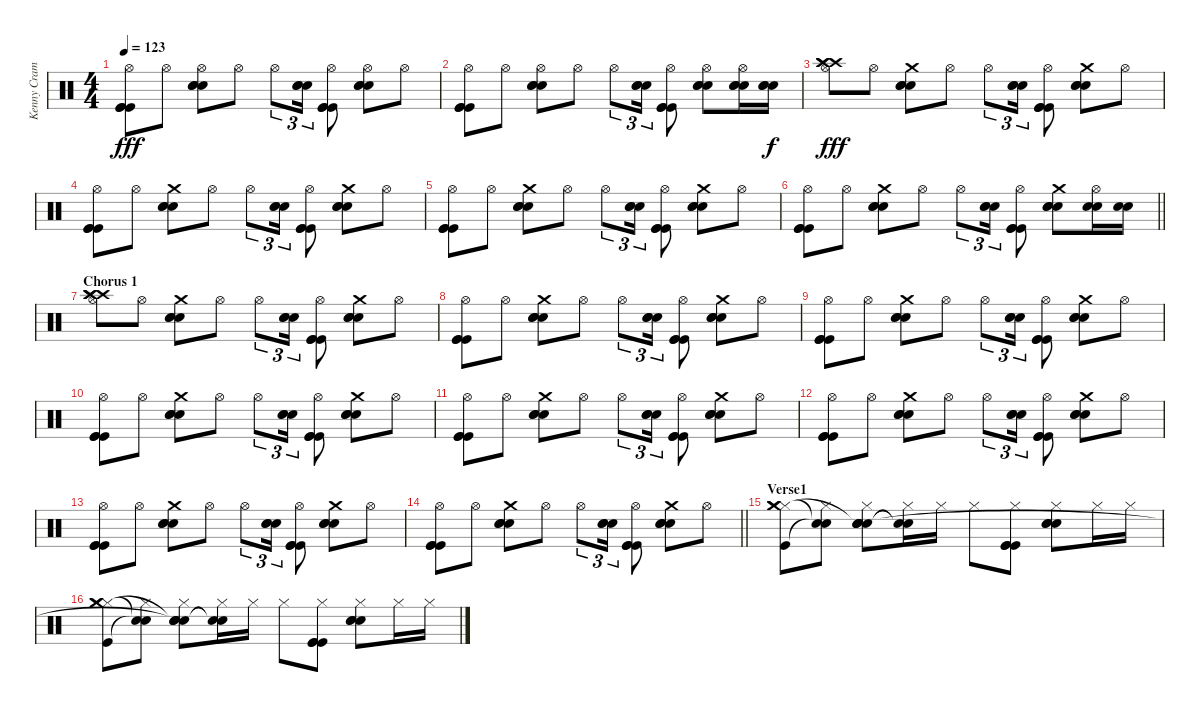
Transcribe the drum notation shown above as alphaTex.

\track ("Kenny Cramme - Drums" "Kenny Cram") {instrument percussion}
\staff {score}
\articulation defaults
\ts (4 4)
\tempo 123
\clef neutral
\ks c
("Hi-Hat (open)" "Kick (hit)" "Kick (hit)" "Kick (hit)").8{dy fff} "Hi-Hat (open)".8 ("Hi-Hat (open)" "Snare (hit) 2" "Snare (hit) 2" "Snare (hit) 2").8 "Hi-Hat (open)".8 "Hi-Hat (open)".8{tu (3 2)} ("Snare (hit) 2" "Snare (hit) 2" "Snare (hit) 2").16{tu (3 2)} ("Hi-Hat (open)" "Kick (hit)" "Kick (hit)" "Kick (hit)").8 ("Hi-Hat (open)" "Snare (hit) 2" "Snare (hit) 2" "Snare (hit) 2").8 "Hi-Hat (open)".8 |
("Hi-Hat (open)" "Kick (hit)" "Kick (hit)" "Kick (hit)").8 "Hi-Hat (open)".8 ("Hi-Hat (open)" "Snare (hit) 2" "Snare (hit) 2" "Snare (hit) 2").8 "Hi-Hat (open)".8 "Hi-Hat (open)".8{tu (3 2)} ("Snare (hit) 2" "Snare (hit) 2" "Snare (hit) 2").16{tu (3 2)} ("Hi-Hat (open)" "Kick (hit)" "Kick (hit)" "Kick (hit)").8 ("Hi-Hat (open)" "Snare (hit) 2" "Snare (hit) 2" "Snare (hit) 2").8 ("Hi-Hat (open)" "Snare (hit) 2" "Snare (hit) 2" "Snare (hit) 2").16 ("Snare (hit) 2" "Snare (hit) 2" "Snare (hit) 2").16{dy f} |
("Hi-Hat (open)" "Crash high (hit)" "Crash high (hit)" "Crash high (hit)").8{dy fff} "Hi-Hat (open)".8 ("Crash medium (hit)" "Snare (hit) 2" "Snare (hit) 2" "Snare (hit) 2").8 "Hi-Hat (open)".8 "Hi-Hat (open)".8{tu (3 2)} ("Snare (hit) 2" "Snare (hit) 2" "Snare (hit) 2").16{tu (3 2)} ("Hi-Hat (open)" "Kick (hit)" "Kick (hit)" "Kick (hit)").8 ("Crash medium (hit)" "Snare (hit) 2" "Snare (hit) 2" "Snare (hit) 2").8 "Hi-Hat (open)".8 |
("Hi-Hat (open)" "Kick (hit)" "Kick (hit)" "Kick (hit)").8 "Hi-Hat (open)".8 ("Crash medium (hit)" "Snare (hit) 2" "Snare (hit) 2" "Snare (hit) 2").8 "Hi-Hat (open)".8 "Hi-Hat (open)".8{tu (3 2)} ("Snare (hit) 2" "Snare (hit) 2" "Snare (hit) 2").16{tu (3 2)} ("Hi-Hat (open)" "Kick (hit)" "Kick (hit)" "Kick (hit)").8 ("Crash medium (hit)" "Snare (hit) 2" "Snare (hit) 2" "Snare (hit) 2").8 "Hi-Hat (open)".8 |
("Hi-Hat (open)" "Kick (hit)" "Kick (hit)" "Kick (hit)").8 "Hi-Hat (open)".8 ("Crash medium (hit)" "Snare (hit) 2" "Snare (hit) 2" "Snare (hit) 2").8 "Hi-Hat (open)".8 "Hi-Hat (open)".8{tu (3 2)} ("Snare (hit) 2" "Snare (hit) 2" "Snare (hit) 2").16{tu (3 2)} ("Hi-Hat (open)" "Kick (hit)" "Kick (hit)" "Kick (hit)").8 ("Crash medium (hit)" "Snare (hit) 2" "Snare (hit) 2" "Snare (hit) 2").8 "Hi-Hat (open)".8 |
\barLineRight lightlight
("Hi-Hat (open)" "Kick (hit)" "Kick (hit)" "Kick (hit)").8 "Hi-Hat (open)".8 ("Crash medium (hit)" "Snare (hit) 2" "Snare (hit) 2" "Snare (hit) 2").8 "Hi-Hat (open)".8 "Hi-Hat (open)".8{tu (3 2)} ("Snare (hit) 2" "Snare (hit) 2" "Snare (hit) 2").16{tu (3 2)} ("Hi-Hat (open)" "Kick (hit)" "Kick (hit)" "Kick (hit)").8 ("Crash medium (hit)" "Snare (hit) 2" "Snare (hit) 2" "Snare (hit) 2").8 ("Hi-Hat (open)" "Snare (hit) 2" "Snare (hit) 2").16 ("Snare (hit) 2" "Snare (hit) 2").16 |
\section ("" "Chorus 1")
("Hi-Hat (open)" "Crash high (hit)" "Crash high (hit)" "Crash high (hit)").8 "Hi-Hat (open)".8 ("Crash medium (hit)" "Snare (hit) 2" "Snare (hit) 2" "Snare (hit) 2").8 "Hi-Hat (open)".8 "Hi-Hat (open)".8{tu (3 2)} ("Snare (hit) 2" "Snare (hit) 2" "Snare (hit) 2").16{tu (3 2)} ("Hi-Hat (open)" "Kick (hit)" "Kick (hit)" "Kick (hit)").8 ("Crash medium (hit)" "Snare (hit) 2" "Snare (hit) 2" "Snare (hit) 2").8 "Hi-Hat (open)".8 |
("Hi-Hat (open)" "Kick (hit)" "Kick (hit)" "Kick (hit)").8 "Hi-Hat (open)".8 ("Crash medium (hit)" "Snare (hit) 2" "Snare (hit) 2" "Snare (hit) 2").8 "Hi-Hat (open)".8 "Hi-Hat (open)".8{tu (3 2)} ("Snare (hit) 2" "Snare (hit) 2" "Snare (hit) 2").16{tu (3 2)} ("Hi-Hat (open)" "Kick (hit)" "Kick (hit)" "Kick (hit)").8 ("Crash medium (hit)" "Snare (hit) 2" "Snare (hit) 2" "Snare (hit) 2").8 "Hi-Hat (open)".8 |
("Hi-Hat (open)" "Kick (hit)" "Kick (hit)" "Kick (hit)").8 "Hi-Hat (open)".8 ("Crash medium (hit)" "Snare (hit) 2" "Snare (hit) 2" "Snare (hit) 2").8 "Hi-Hat (open)".8 "Hi-Hat (open)".8{tu (3 2)} ("Snare (hit) 2" "Snare (hit) 2" "Snare (hit) 2").16{tu (3 2)} ("Hi-Hat (open)" "Kick (hit)" "Kick (hit)" "Kick (hit)").8 ("Crash medium (hit)" "Snare (hit) 2" "Snare (hit) 2" "Snare (hit) 2").8 "Hi-Hat (open)".8 |
("Hi-Hat (open)" "Kick (hit)" "Kick (hit)" "Kick (hit)").8 "Hi-Hat (open)".8 ("Crash medium (hit)" "Snare (hit) 2" "Snare (hit) 2" "Snare (hit) 2").8 "Hi-Hat (open)".8 "Hi-Hat (open)".8{tu (3 2)} ("Snare (hit) 2" "Snare (hit) 2" "Snare (hit) 2").16{tu (3 2)} ("Hi-Hat (open)" "Kick (hit)" "Kick (hit)" "Kick (hit)").8 ("Crash medium (hit)" "Snare (hit) 2" "Snare (hit) 2" "Snare (hit) 2").8 "Hi-Hat (open)".8 |
("Hi-Hat (open)" "Kick (hit)" "Kick (hit)" "Kick (hit)").8 "Hi-Hat (open)".8 ("Crash medium (hit)" "Snare (hit) 2" "Snare (hit) 2" "Snare (hit) 2").8 "Hi-Hat (open)".8 "Hi-Hat (open)".8{tu (3 2)} ("Snare (hit) 2" "Snare (hit) 2" "Snare (hit) 2").16{tu (3 2)} ("Hi-Hat (open)" "Kick (hit)" "Kick (hit)" "Kick (hit)").8 ("Crash medium (hit)" "Snare (hit) 2" "Snare (hit) 2" "Snare (hit) 2").8 "Hi-Hat (open)".8 |
("Hi-Hat (open)" "Kick (hit)" "Kick (hit)" "Kick (hit)").8 "Hi-Hat (open)".8 ("Crash medium (hit)" "Snare (hit) 2" "Snare (hit) 2" "Snare (hit) 2").8 "Hi-Hat (open)".8 "Hi-Hat (open)".8{tu (3 2)} ("Snare (hit) 2" "Snare (hit) 2" "Snare (hit) 2").16{tu (3 2)} ("Hi-Hat (open)" "Kick (hit)" "Kick (hit)" "Kick (hit)").8 ("Crash medium (hit)" "Snare (hit) 2" "Snare (hit) 2" "Snare (hit) 2").8 "Hi-Hat (open)".8 |
("Hi-Hat (open)" "Kick (hit)" "Kick (hit)" "Kick (hit)").8 "Hi-Hat (open)".8 ("Crash medium (hit)" "Snare (hit) 2" "Snare (hit) 2" "Snare (hit) 2").8 "Hi-Hat (open)".8 "Hi-Hat (open)".8{tu (3 2)} ("Snare (hit) 2" "Snare (hit) 2" "Snare (hit) 2").16{tu (3 2)} ("Hi-Hat (open)" "Kick (hit)" "Kick (hit)" "Kick (hit)").8 ("Crash medium (hit)" "Snare (hit) 2" "Snare (hit) 2" "Snare (hit) 2").8 "Hi-Hat (open)".8 |
\barLineRight lightlight
("Hi-Hat (open)" "Kick (hit)" "Kick (hit)" "Kick (hit)").8 "Hi-Hat (open)".8 ("Crash medium (hit)" "Snare (hit) 2" "Snare (hit) 2" "Snare (hit) 2").8 "Hi-Hat (open)".8 "Hi-Hat (open)".8{tu (3 2)} ("Snare (hit) 2" "Snare (hit) 2" "Snare (hit) 2").16{tu (3 2)} ("Hi-Hat (open)" "Kick (hit)" "Kick (hit)" "Kick (hit)").8 ("Crash medium (hit)" "Snare (hit) 2" "Snare (hit) 2" "Snare (hit) 2").8 "Hi-Hat (open)".8 |
\section ("" "Verse1")
("Hi-Hat (closed)" "Kick (hit)" "Crash medium (hit)" "Crash medium (hit)").8 ("Hi-Hat (closed)" "Snare (hit)"{t} "Snare (hit)"{t}).8 ("Hi-Hat (closed)" "Snare (hit) 2" "Snare (hit) 2" "Snare (hit) 2"{t} "Snare (hit)").8 ("Hi-Hat (closed)" "Snare (hit)"{t} "Snare (hit)"{t}).16 "Hi-Hat (closed)".16 "Hi-Hat (closed)".8 ("Hi-Hat (closed)" "Kick (hit)" "Kick (hit)" "Kick (hit)").8 ("Hi-Hat (closed)" "Snare (hit) 2" "Snare (hit) 2" "Snare (hit) 2").8 "Hi-Hat (closed)".16 "Hi-Hat (closed)".16 |
("Hi-Hat (closed)" "Kick (hit)" "Crash medium (hit)" "Crash medium (hit)").8 ("Hi-Hat (closed)" "Snare (hit)"{t} "Snare (hit)"{t}).8 ("Hi-Hat (closed)" "Snare (hit) 2" "Snare (hit) 2" "Snare (hit) 2"{t} "Snare (hit)"{t}).8 ("Hi-Hat (closed)" "Snare (hit)"{t} "Snare (hit)"{t}).16 "Hi-Hat (closed)".16 "Hi-Hat (closed)".8 ("Hi-Hat (closed)" "Kick (hit)" "Kick (hit)" "Kick (hit)").8 ("Hi-Hat (closed)" "Snare (hit) 2" "Snare (hit) 2" "Snare (hit) 2").8 "Hi-Hat (closed)".16 "Hi-Hat (closed)".16
